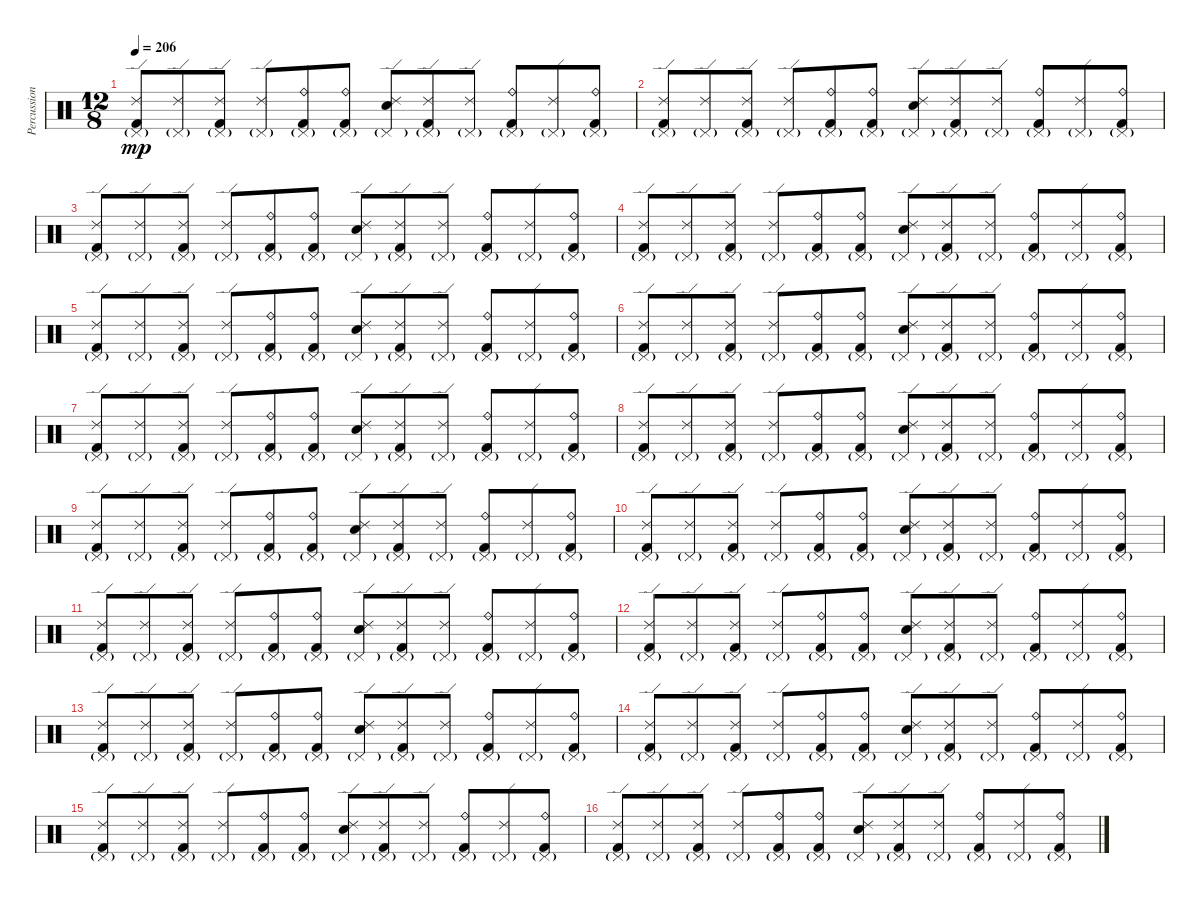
\track ("Percussion" "Percussion") {instrument percussion}
\staff {score}
\articulation defaults
\ts (12 8)
\tempo 206
\clef neutral
\ks c
("Ride (edge) 2" "Pedal Hi-Hat (hit)"{g} "Kick (hit) 2").8{dy mp} ("Ride (edge) 2" "Pedal Hi-Hat (hit)"{g}).8 ("Ride (edge) 2" "Pedal Hi-Hat (hit)"{g} "Kick (hit) 2").8 ("Ride (edge) 2" "Pedal Hi-Hat (hit)"{g}).8 ("Ride (bell)" "Pedal Hi-Hat (hit)"{g} "Kick (hit) 2").8 ("Ride (bell)" "Pedal Hi-Hat (hit)"{g} "Kick (hit) 2").8 ("Ride (edge) 2" "Pedal Hi-Hat (hit)"{g} "Electric Snare (hit)").8 ("Ride (edge) 2" "Pedal Hi-Hat (hit)"{g} "Kick (hit) 2").8 ("Ride (edge) 2" "Pedal Hi-Hat (hit)"{g}).8 ("Ride (bell)" "Pedal Hi-Hat (hit)"{g} "Kick (hit) 2").8 ("Ride (edge) 2" "Pedal Hi-Hat (hit)"{g}).8 ("Ride (bell)" "Pedal Hi-Hat (hit)"{g} "Kick (hit) 2").8 |
("Ride (edge) 2" "Pedal Hi-Hat (hit)"{g} "Kick (hit) 2").8 ("Ride (edge) 2" "Pedal Hi-Hat (hit)"{g}).8 ("Ride (edge) 2" "Pedal Hi-Hat (hit)"{g} "Kick (hit) 2").8 ("Ride (edge) 2" "Pedal Hi-Hat (hit)"{g}).8 ("Ride (bell)" "Pedal Hi-Hat (hit)"{g} "Kick (hit) 2").8 ("Ride (bell)" "Pedal Hi-Hat (hit)"{g} "Kick (hit) 2").8 ("Ride (edge) 2" "Pedal Hi-Hat (hit)"{g} "Electric Snare (hit)").8 ("Ride (edge) 2" "Pedal Hi-Hat (hit)"{g} "Kick (hit) 2").8 ("Ride (edge) 2" "Pedal Hi-Hat (hit)"{g}).8 ("Ride (bell)" "Pedal Hi-Hat (hit)"{g} "Kick (hit) 2").8 ("Ride (edge) 2" "Pedal Hi-Hat (hit)"{g}).8 ("Ride (bell)" "Pedal Hi-Hat (hit)"{g} "Kick (hit) 2").8 |
("Ride (edge) 2" "Pedal Hi-Hat (hit)"{g} "Kick (hit) 2").8 ("Ride (edge) 2" "Pedal Hi-Hat (hit)"{g}).8 ("Ride (edge) 2" "Pedal Hi-Hat (hit)"{g} "Kick (hit) 2").8 ("Ride (edge) 2" "Pedal Hi-Hat (hit)"{g}).8 ("Ride (bell)" "Pedal Hi-Hat (hit)"{g} "Kick (hit) 2").8 ("Ride (bell)" "Pedal Hi-Hat (hit)"{g} "Kick (hit) 2").8 ("Ride (edge) 2" "Pedal Hi-Hat (hit)"{g} "Electric Snare (hit)").8 ("Ride (edge) 2" "Pedal Hi-Hat (hit)"{g} "Kick (hit) 2").8 ("Ride (edge) 2" "Pedal Hi-Hat (hit)"{g}).8 ("Ride (bell)" "Pedal Hi-Hat (hit)"{g} "Kick (hit) 2").8 ("Ride (edge) 2" "Pedal Hi-Hat (hit)"{g}).8 ("Ride (bell)" "Pedal Hi-Hat (hit)"{g} "Kick (hit) 2").8 |
("Ride (edge) 2" "Pedal Hi-Hat (hit)"{g} "Kick (hit) 2").8 ("Ride (edge) 2" "Pedal Hi-Hat (hit)"{g}).8 ("Ride (edge) 2" "Pedal Hi-Hat (hit)"{g} "Kick (hit) 2").8 ("Ride (edge) 2" "Pedal Hi-Hat (hit)"{g}).8 ("Ride (bell)" "Pedal Hi-Hat (hit)"{g} "Kick (hit) 2").8 ("Ride (bell)" "Pedal Hi-Hat (hit)"{g} "Kick (hit) 2").8 ("Ride (edge) 2" "Pedal Hi-Hat (hit)"{g} "Electric Snare (hit)").8 ("Ride (edge) 2" "Pedal Hi-Hat (hit)"{g} "Kick (hit) 2").8 ("Ride (edge) 2" "Pedal Hi-Hat (hit)"{g}).8 ("Ride (bell)" "Pedal Hi-Hat (hit)"{g} "Kick (hit) 2").8 ("Ride (edge) 2" "Pedal Hi-Hat (hit)"{g}).8 ("Ride (bell)" "Pedal Hi-Hat (hit)"{g} "Kick (hit) 2").8 |
("Ride (edge) 2" "Pedal Hi-Hat (hit)"{g} "Kick (hit) 2").8 ("Ride (edge) 2" "Pedal Hi-Hat (hit)"{g}).8 ("Ride (edge) 2" "Pedal Hi-Hat (hit)"{g} "Kick (hit) 2").8 ("Ride (edge) 2" "Pedal Hi-Hat (hit)"{g}).8 ("Ride (bell)" "Pedal Hi-Hat (hit)"{g} "Kick (hit) 2").8 ("Ride (bell)" "Pedal Hi-Hat (hit)"{g} "Kick (hit) 2").8 ("Ride (edge) 2" "Pedal Hi-Hat (hit)"{g} "Electric Snare (hit)").8 ("Ride (edge) 2" "Pedal Hi-Hat (hit)"{g} "Kick (hit) 2").8 ("Ride (edge) 2" "Pedal Hi-Hat (hit)"{g}).8 ("Ride (bell)" "Pedal Hi-Hat (hit)"{g} "Kick (hit) 2").8 ("Ride (edge) 2" "Pedal Hi-Hat (hit)"{g}).8 ("Ride (bell)" "Pedal Hi-Hat (hit)"{g} "Kick (hit) 2").8 |
("Ride (edge) 2" "Pedal Hi-Hat (hit)"{g} "Kick (hit) 2").8 ("Ride (edge) 2" "Pedal Hi-Hat (hit)"{g}).8 ("Ride (edge) 2" "Pedal Hi-Hat (hit)"{g} "Kick (hit) 2").8 ("Ride (edge) 2" "Pedal Hi-Hat (hit)"{g}).8 ("Ride (bell)" "Pedal Hi-Hat (hit)"{g} "Kick (hit) 2").8 ("Ride (bell)" "Pedal Hi-Hat (hit)"{g} "Kick (hit) 2").8 ("Ride (edge) 2" "Pedal Hi-Hat (hit)"{g} "Electric Snare (hit)").8 ("Ride (edge) 2" "Pedal Hi-Hat (hit)"{g} "Kick (hit) 2").8 ("Ride (edge) 2" "Pedal Hi-Hat (hit)"{g}).8 ("Ride (bell)" "Pedal Hi-Hat (hit)"{g} "Kick (hit) 2").8 ("Ride (edge) 2" "Pedal Hi-Hat (hit)"{g}).8 ("Ride (bell)" "Pedal Hi-Hat (hit)"{g} "Kick (hit) 2").8 |
("Ride (edge) 2" "Pedal Hi-Hat (hit)"{g} "Kick (hit) 2").8 ("Ride (edge) 2" "Pedal Hi-Hat (hit)"{g}).8 ("Ride (edge) 2" "Pedal Hi-Hat (hit)"{g} "Kick (hit) 2").8 ("Ride (edge) 2" "Pedal Hi-Hat (hit)"{g}).8 ("Ride (bell)" "Pedal Hi-Hat (hit)"{g} "Kick (hit) 2").8 ("Ride (bell)" "Pedal Hi-Hat (hit)"{g} "Kick (hit) 2").8 ("Ride (edge) 2" "Pedal Hi-Hat (hit)"{g} "Electric Snare (hit)").8 ("Ride (edge) 2" "Pedal Hi-Hat (hit)"{g} "Kick (hit) 2").8 ("Ride (edge) 2" "Pedal Hi-Hat (hit)"{g}).8 ("Ride (bell)" "Pedal Hi-Hat (hit)"{g} "Kick (hit) 2").8 ("Ride (edge) 2" "Pedal Hi-Hat (hit)"{g}).8 ("Ride (bell)" "Pedal Hi-Hat (hit)"{g} "Kick (hit) 2").8 |
("Ride (edge) 2" "Pedal Hi-Hat (hit)"{g} "Kick (hit) 2").8 ("Ride (edge) 2" "Pedal Hi-Hat (hit)"{g}).8 ("Ride (edge) 2" "Pedal Hi-Hat (hit)"{g} "Kick (hit) 2").8 ("Ride (edge) 2" "Pedal Hi-Hat (hit)"{g}).8 ("Ride (bell)" "Pedal Hi-Hat (hit)"{g} "Kick (hit) 2").8 ("Ride (bell)" "Pedal Hi-Hat (hit)"{g} "Kick (hit) 2").8 ("Ride (edge) 2" "Pedal Hi-Hat (hit)"{g} "Electric Snare (hit)").8 ("Ride (edge) 2" "Pedal Hi-Hat (hit)"{g} "Kick (hit) 2").8 ("Ride (edge) 2" "Pedal Hi-Hat (hit)"{g}).8 ("Ride (bell)" "Pedal Hi-Hat (hit)"{g} "Kick (hit) 2").8 ("Ride (edge) 2" "Pedal Hi-Hat (hit)"{g}).8 ("Ride (bell)" "Pedal Hi-Hat (hit)"{g} "Kick (hit) 2").8 |
("Ride (edge) 2" "Pedal Hi-Hat (hit)"{g} "Kick (hit) 2").8 ("Ride (edge) 2" "Pedal Hi-Hat (hit)"{g}).8 ("Ride (edge) 2" "Pedal Hi-Hat (hit)"{g} "Kick (hit) 2").8 ("Ride (edge) 2" "Pedal Hi-Hat (hit)"{g}).8 ("Ride (bell)" "Pedal Hi-Hat (hit)"{g} "Kick (hit) 2").8 ("Ride (bell)" "Pedal Hi-Hat (hit)"{g} "Kick (hit) 2").8 ("Ride (edge) 2" "Pedal Hi-Hat (hit)"{g} "Electric Snare (hit)").8 ("Ride (edge) 2" "Pedal Hi-Hat (hit)"{g} "Kick (hit) 2").8 ("Ride (edge) 2" "Pedal Hi-Hat (hit)"{g}).8 ("Ride (bell)" "Pedal Hi-Hat (hit)"{g} "Kick (hit) 2").8 ("Ride (edge) 2" "Pedal Hi-Hat (hit)"{g}).8 ("Ride (bell)" "Pedal Hi-Hat (hit)"{g} "Kick (hit) 2").8 |
("Ride (edge) 2" "Pedal Hi-Hat (hit)"{g} "Kick (hit) 2").8 ("Ride (edge) 2" "Pedal Hi-Hat (hit)"{g}).8 ("Ride (edge) 2" "Pedal Hi-Hat (hit)"{g} "Kick (hit) 2").8 ("Ride (edge) 2" "Pedal Hi-Hat (hit)"{g}).8 ("Ride (bell)" "Pedal Hi-Hat (hit)"{g} "Kick (hit) 2").8 ("Ride (bell)" "Pedal Hi-Hat (hit)"{g} "Kick (hit) 2").8 ("Ride (edge) 2" "Pedal Hi-Hat (hit)"{g} "Electric Snare (hit)").8 ("Ride (edge) 2" "Pedal Hi-Hat (hit)"{g} "Kick (hit) 2").8 ("Ride (edge) 2" "Pedal Hi-Hat (hit)"{g}).8 ("Ride (bell)" "Pedal Hi-Hat (hit)"{g} "Kick (hit) 2").8 ("Ride (edge) 2" "Pedal Hi-Hat (hit)"{g}).8 ("Ride (bell)" "Pedal Hi-Hat (hit)"{g} "Kick (hit) 2").8 |
("Ride (edge) 2" "Pedal Hi-Hat (hit)"{g} "Kick (hit) 2").8 ("Ride (edge) 2" "Pedal Hi-Hat (hit)"{g}).8 ("Ride (edge) 2" "Pedal Hi-Hat (hit)"{g} "Kick (hit) 2").8 ("Ride (edge) 2" "Pedal Hi-Hat (hit)"{g}).8 ("Ride (bell)" "Pedal Hi-Hat (hit)"{g} "Kick (hit) 2").8 ("Ride (bell)" "Pedal Hi-Hat (hit)"{g} "Kick (hit) 2").8 ("Ride (edge) 2" "Pedal Hi-Hat (hit)"{g} "Electric Snare (hit)").8 ("Ride (edge) 2" "Pedal Hi-Hat (hit)"{g} "Kick (hit) 2").8 ("Ride (edge) 2" "Pedal Hi-Hat (hit)"{g}).8 ("Ride (bell)" "Pedal Hi-Hat (hit)"{g} "Kick (hit) 2").8 ("Ride (edge) 2" "Pedal Hi-Hat (hit)"{g}).8 ("Ride (bell)" "Pedal Hi-Hat (hit)"{g} "Kick (hit) 2").8 |
("Ride (edge) 2" "Pedal Hi-Hat (hit)"{g} "Kick (hit) 2").8 ("Ride (edge) 2" "Pedal Hi-Hat (hit)"{g}).8 ("Ride (edge) 2" "Pedal Hi-Hat (hit)"{g} "Kick (hit) 2").8 ("Ride (edge) 2" "Pedal Hi-Hat (hit)"{g}).8 ("Ride (bell)" "Pedal Hi-Hat (hit)"{g} "Kick (hit) 2").8 ("Ride (bell)" "Pedal Hi-Hat (hit)"{g} "Kick (hit) 2").8 ("Ride (edge) 2" "Pedal Hi-Hat (hit)"{g} "Electric Snare (hit)").8 ("Ride (edge) 2" "Pedal Hi-Hat (hit)"{g} "Kick (hit) 2").8 ("Ride (edge) 2" "Pedal Hi-Hat (hit)"{g}).8 ("Ride (bell)" "Pedal Hi-Hat (hit)"{g} "Kick (hit) 2").8 ("Ride (edge) 2" "Pedal Hi-Hat (hit)"{g}).8 ("Ride (bell)" "Pedal Hi-Hat (hit)"{g} "Kick (hit) 2").8 |
("Ride (edge) 2" "Pedal Hi-Hat (hit)"{g} "Kick (hit) 2").8 ("Ride (edge) 2" "Pedal Hi-Hat (hit)"{g}).8 ("Ride (edge) 2" "Pedal Hi-Hat (hit)"{g} "Kick (hit) 2").8 ("Ride (edge) 2" "Pedal Hi-Hat (hit)"{g}).8 ("Ride (bell)" "Pedal Hi-Hat (hit)"{g} "Kick (hit) 2").8 ("Ride (bell)" "Pedal Hi-Hat (hit)"{g} "Kick (hit) 2").8 ("Ride (edge) 2" "Pedal Hi-Hat (hit)"{g} "Electric Snare (hit)").8 ("Ride (edge) 2" "Pedal Hi-Hat (hit)"{g} "Kick (hit) 2").8 ("Ride (edge) 2" "Pedal Hi-Hat (hit)"{g}).8 ("Ride (bell)" "Pedal Hi-Hat (hit)"{g} "Kick (hit) 2").8 ("Ride (edge) 2" "Pedal Hi-Hat (hit)"{g}).8 ("Ride (bell)" "Pedal Hi-Hat (hit)"{g} "Kick (hit) 2").8 |
("Ride (edge) 2" "Pedal Hi-Hat (hit)"{g} "Kick (hit) 2").8 ("Ride (edge) 2" "Pedal Hi-Hat (hit)"{g}).8 ("Ride (edge) 2" "Pedal Hi-Hat (hit)"{g} "Kick (hit) 2").8 ("Ride (edge) 2" "Pedal Hi-Hat (hit)"{g}).8 ("Ride (bell)" "Pedal Hi-Hat (hit)"{g} "Kick (hit) 2").8 ("Ride (bell)" "Pedal Hi-Hat (hit)"{g} "Kick (hit) 2").8 ("Ride (edge) 2" "Pedal Hi-Hat (hit)"{g} "Electric Snare (hit)").8 ("Ride (edge) 2" "Pedal Hi-Hat (hit)"{g} "Kick (hit) 2").8 ("Ride (edge) 2" "Pedal Hi-Hat (hit)"{g}).8 ("Ride (bell)" "Pedal Hi-Hat (hit)"{g} "Kick (hit) 2").8 ("Ride (edge) 2" "Pedal Hi-Hat (hit)"{g}).8 ("Ride (bell)" "Pedal Hi-Hat (hit)"{g} "Kick (hit) 2").8 |
("Ride (edge) 2" "Pedal Hi-Hat (hit)"{g} "Kick (hit) 2").8 ("Ride (edge) 2" "Pedal Hi-Hat (hit)"{g}).8 ("Ride (edge) 2" "Pedal Hi-Hat (hit)"{g} "Kick (hit) 2").8 ("Ride (edge) 2" "Pedal Hi-Hat (hit)"{g}).8 ("Ride (bell)" "Pedal Hi-Hat (hit)"{g} "Kick (hit) 2").8 ("Ride (bell)" "Pedal Hi-Hat (hit)"{g} "Kick (hit) 2").8 ("Ride (edge) 2" "Pedal Hi-Hat (hit)"{g} "Electric Snare (hit)").8 ("Ride (edge) 2" "Pedal Hi-Hat (hit)"{g} "Kick (hit) 2").8 ("Ride (edge) 2" "Pedal Hi-Hat (hit)"{g}).8 ("Ride (bell)" "Pedal Hi-Hat (hit)"{g} "Kick (hit) 2").8 ("Ride (edge) 2" "Pedal Hi-Hat (hit)"{g}).8 ("Ride (bell)" "Pedal Hi-Hat (hit)"{g} "Kick (hit) 2").8 |
("Ride (edge) 2" "Pedal Hi-Hat (hit)"{g} "Kick (hit) 2").8 ("Ride (edge) 2" "Pedal Hi-Hat (hit)"{g}).8 ("Ride (edge) 2" "Pedal Hi-Hat (hit)"{g} "Kick (hit) 2").8 ("Ride (edge) 2" "Pedal Hi-Hat (hit)"{g}).8 ("Ride (bell)" "Pedal Hi-Hat (hit)"{g} "Kick (hit) 2").8 ("Ride (bell)" "Pedal Hi-Hat (hit)"{g} "Kick (hit) 2").8 ("Ride (edge) 2" "Pedal Hi-Hat (hit)"{g} "Electric Snare (hit)").8 ("Ride (edge) 2" "Pedal Hi-Hat (hit)"{g} "Kick (hit) 2").8 ("Ride (edge) 2" "Pedal Hi-Hat (hit)"{g}).8 ("Ride (bell)" "Pedal Hi-Hat (hit)"{g} "Kick (hit) 2").8 ("Ride (edge) 2" "Pedal Hi-Hat (hit)"{g}).8 ("Ride (bell)" "Pedal Hi-Hat (hit)"{g} "Kick (hit) 2").8
